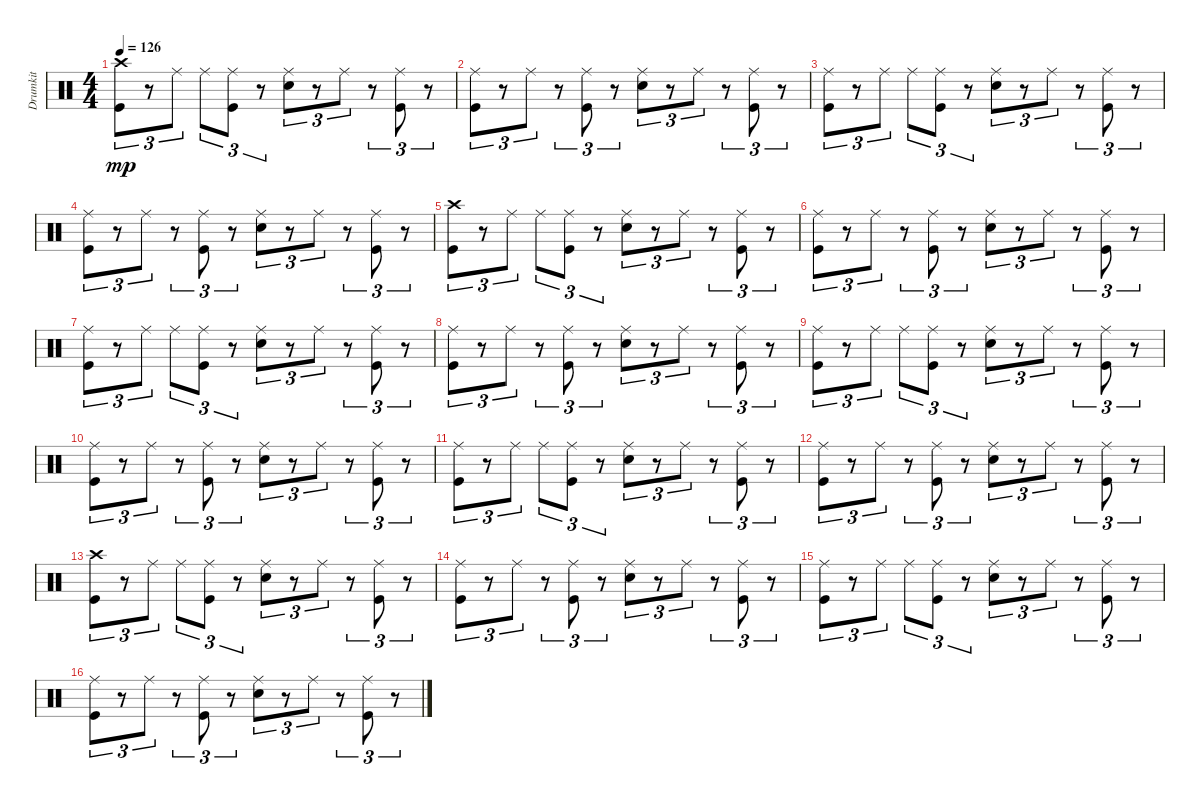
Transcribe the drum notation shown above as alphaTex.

\track ("Drumkit" "Drumkit") {instrument percussion}
\staff {score}
\articulation defaults
\ts (4 4)
\tempo 126
\clef neutral
\ks c
("Crash high (hit)" "Kick (hit)").8{tu (3 2) dy mp} r.8{tu (3 2)} "Ride (middle)".8{tu (3 2)} "Ride (middle)".8{tu (3 2)} ("Kick (hit)" "Ride (middle)").8{tu (3 2)} r.8{tu (3 2)} ("Snare (hit) 2" "Ride (middle)").8{tu (3 2)} r.8{tu (3 2)} "Ride (middle)".8{tu (3 2)} r.8{tu (3 2)} ("Kick (hit)" "Ride (middle)").8{tu (3 2)} r.8{tu (3 2)} |
("Ride (middle)" "Kick (hit)").8{tu (3 2)} r.8{tu (3 2)} "Ride (middle)".8{tu (3 2)} r.8{tu (3 2)} ("Ride (middle)" "Kick (hit)").8{tu (3 2)} r.8{tu (3 2)} ("Ride (middle)" "Snare (hit) 2").8{tu (3 2)} r.8{tu (3 2)} "Ride (middle)".8{tu (3 2)} r.8{tu (3 2)} ("Ride (middle)" "Kick (hit)").8{tu (3 2)} r.8{tu (3 2)} |
("Ride (middle)" "Kick (hit)").8{tu (3 2)} r.8{tu (3 2)} "Ride (middle)".8{tu (3 2)} "Ride (middle)".8{tu (3 2)} ("Kick (hit)" "Ride (middle)").8{tu (3 2)} r.8{tu (3 2)} ("Snare (hit) 2" "Ride (middle)").8{tu (3 2)} r.8{tu (3 2)} "Ride (middle)".8{tu (3 2)} r.8{tu (3 2)} ("Kick (hit)" "Ride (middle)").8{tu (3 2)} r.8{tu (3 2)} |
("Ride (middle)" "Kick (hit)").8{tu (3 2)} r.8{tu (3 2)} "Ride (middle)".8{tu (3 2)} r.8{tu (3 2)} ("Ride (middle)" "Kick (hit)").8{tu (3 2)} r.8{tu (3 2)} ("Ride (middle)" "Snare (hit) 2").8{tu (3 2)} r.8{tu (3 2)} "Ride (middle)".8{tu (3 2)} r.8{tu (3 2)} ("Ride (middle)" "Kick (hit)").8{tu (3 2)} r.8{tu (3 2)} |
("Crash high (hit)" "Kick (hit)").8{tu (3 2)} r.8{tu (3 2)} "Ride (middle)".8{tu (3 2)} "Ride (middle)".8{tu (3 2)} ("Kick (hit)" "Ride (middle)").8{tu (3 2)} r.8{tu (3 2)} ("Snare (hit) 2" "Ride (middle)").8{tu (3 2)} r.8{tu (3 2)} "Ride (middle)".8{tu (3 2)} r.8{tu (3 2)} ("Kick (hit)" "Ride (middle)").8{tu (3 2)} r.8{tu (3 2)} |
("Ride (middle)" "Kick (hit)").8{tu (3 2)} r.8{tu (3 2)} "Ride (middle)".8{tu (3 2)} r.8{tu (3 2)} ("Ride (middle)" "Kick (hit)").8{tu (3 2)} r.8{tu (3 2)} ("Ride (middle)" "Snare (hit) 2").8{tu (3 2)} r.8{tu (3 2)} "Ride (middle)".8{tu (3 2)} r.8{tu (3 2)} ("Ride (middle)" "Kick (hit)").8{tu (3 2)} r.8{tu (3 2)} |
("Ride (middle)" "Kick (hit)").8{tu (3 2)} r.8{tu (3 2)} "Ride (middle)".8{tu (3 2)} "Ride (middle)".8{tu (3 2)} ("Kick (hit)" "Ride (middle)").8{tu (3 2)} r.8{tu (3 2)} ("Snare (hit) 2" "Ride (middle)").8{tu (3 2)} r.8{tu (3 2)} "Ride (middle)".8{tu (3 2)} r.8{tu (3 2)} ("Kick (hit)" "Ride (middle)").8{tu (3 2)} r.8{tu (3 2)} |
("Ride (middle)" "Kick (hit)").8{tu (3 2)} r.8{tu (3 2)} "Ride (middle)".8{tu (3 2)} r.8{tu (3 2)} ("Ride (middle)" "Kick (hit)").8{tu (3 2)} r.8{tu (3 2)} ("Ride (middle)" "Snare (hit) 2").8{tu (3 2)} r.8{tu (3 2)} "Ride (middle)".8{tu (3 2)} r.8{tu (3 2)} ("Ride (middle)" "Kick (hit)").8{tu (3 2)} r.8{tu (3 2)} |
("Ride (middle)" "Kick (hit)").8{tu (3 2)} r.8{tu (3 2)} "Ride (middle)".8{tu (3 2)} "Ride (middle)".8{tu (3 2)} ("Kick (hit)" "Ride (middle)").8{tu (3 2)} r.8{tu (3 2)} ("Snare (hit) 2" "Ride (middle)").8{tu (3 2)} r.8{tu (3 2)} "Ride (middle)".8{tu (3 2)} r.8{tu (3 2)} ("Kick (hit)" "Ride (middle)").8{tu (3 2)} r.8{tu (3 2)} |
("Ride (middle)" "Kick (hit)").8{tu (3 2)} r.8{tu (3 2)} "Ride (middle)".8{tu (3 2)} r.8{tu (3 2)} ("Ride (middle)" "Kick (hit)").8{tu (3 2)} r.8{tu (3 2)} ("Ride (middle)" "Snare (hit) 2").8{tu (3 2)} r.8{tu (3 2)} "Ride (middle)".8{tu (3 2)} r.8{tu (3 2)} ("Ride (middle)" "Kick (hit)").8{tu (3 2)} r.8{tu (3 2)} |
("Ride (middle)" "Kick (hit)").8{tu (3 2)} r.8{tu (3 2)} "Ride (middle)".8{tu (3 2)} "Ride (middle)".8{tu (3 2)} ("Kick (hit)" "Ride (middle)").8{tu (3 2)} r.8{tu (3 2)} ("Snare (hit) 2" "Ride (middle)").8{tu (3 2)} r.8{tu (3 2)} "Ride (middle)".8{tu (3 2)} r.8{tu (3 2)} ("Kick (hit)" "Ride (middle)").8{tu (3 2)} r.8{tu (3 2)} |
("Ride (middle)" "Kick (hit)").8{tu (3 2)} r.8{tu (3 2)} "Ride (middle)".8{tu (3 2)} r.8{tu (3 2)} ("Ride (middle)" "Kick (hit)").8{tu (3 2)} r.8{tu (3 2)} ("Ride (middle)" "Snare (hit) 2").8{tu (3 2)} r.8{tu (3 2)} "Ride (middle)".8{tu (3 2)} r.8{tu (3 2)} ("Ride (middle)" "Kick (hit)").8{tu (3 2)} r.8{tu (3 2)} |
("Crash high (hit)" "Kick (hit)").8{tu (3 2)} r.8{tu (3 2)} "Ride (middle)".8{tu (3 2)} "Ride (middle)".8{tu (3 2)} ("Kick (hit)" "Ride (middle)").8{tu (3 2)} r.8{tu (3 2)} ("Snare (hit) 2" "Ride (middle)").8{tu (3 2)} r.8{tu (3 2)} "Ride (middle)".8{tu (3 2)} r.8{tu (3 2)} ("Kick (hit)" "Ride (middle)").8{tu (3 2)} r.8{tu (3 2)} |
("Ride (middle)" "Kick (hit)").8{tu (3 2)} r.8{tu (3 2)} "Ride (middle)".8{tu (3 2)} r.8{tu (3 2)} ("Ride (middle)" "Kick (hit)").8{tu (3 2)} r.8{tu (3 2)} ("Ride (middle)" "Snare (hit) 2").8{tu (3 2)} r.8{tu (3 2)} "Ride (middle)".8{tu (3 2)} r.8{tu (3 2)} ("Ride (middle)" "Kick (hit)").8{tu (3 2)} r.8{tu (3 2)} |
("Ride (middle)" "Kick (hit)").8{tu (3 2)} r.8{tu (3 2)} "Ride (middle)".8{tu (3 2)} "Ride (middle)".8{tu (3 2)} ("Kick (hit)" "Ride (middle)").8{tu (3 2)} r.8{tu (3 2)} ("Snare (hit) 2" "Ride (middle)").8{tu (3 2)} r.8{tu (3 2)} "Ride (middle)".8{tu (3 2)} r.8{tu (3 2)} ("Kick (hit)" "Ride (middle)").8{tu (3 2)} r.8{tu (3 2)} |
("Ride (middle)" "Kick (hit)").8{tu (3 2)} r.8{tu (3 2)} "Ride (middle)".8{tu (3 2)} r.8{tu (3 2)} ("Ride (middle)" "Kick (hit)").8{tu (3 2)} r.8{tu (3 2)} ("Ride (middle)" "Snare (hit) 2").8{tu (3 2)} r.8{tu (3 2)} "Ride (middle)".8{tu (3 2)} r.8{tu (3 2)} ("Ride (middle)" "Kick (hit)").8{tu (3 2)} r.8{tu (3 2)}
